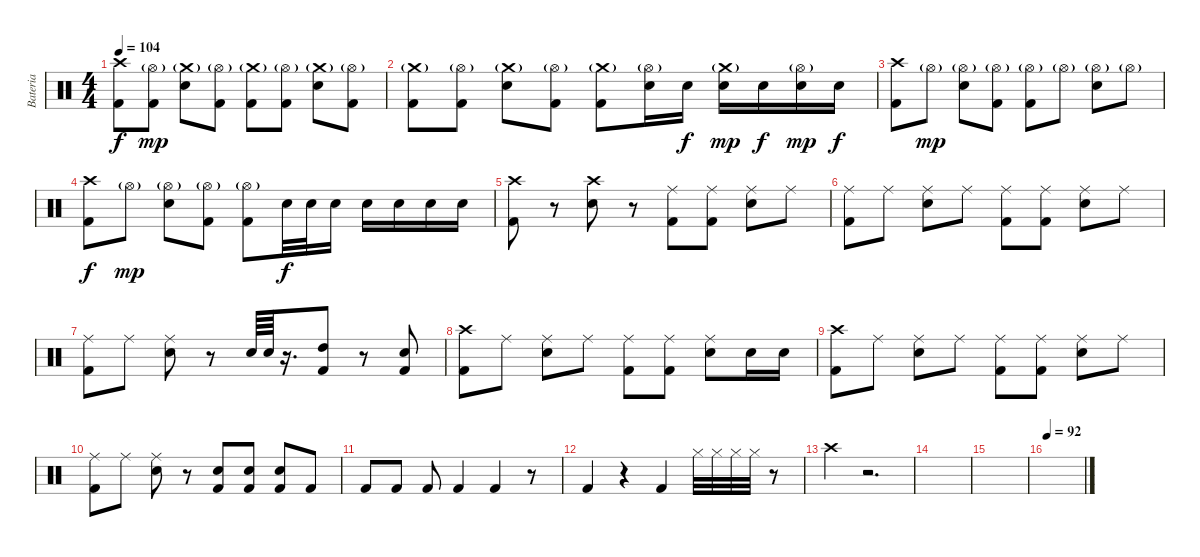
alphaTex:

\track ("Bateria" "Bateria") {instrument percussion}
\staff {score}
\articulation defaults
\ts (4 4)
\tempo 104
\clef neutral
\ks c
("Crash high (hit)" "Kick (hit) 2").8{dy f} ("Hi-Hat (open)"{g} "Kick (hit) 2").8{dy mp} ("Crash medium (hit)"{g} "Snare (hit) 2").8 ("Hi-Hat (open)"{g} "Kick (hit) 2").8 ("Crash medium (hit)"{g} "Kick (hit) 2").8 ("Hi-Hat (open)"{g} "Kick (hit) 2").8 ("Crash medium (hit)"{g} "Snare (hit) 2").8 ("Hi-Hat (open)"{g} "Kick (hit) 2").8 |
("Crash medium (hit)"{g} "Kick (hit) 2").8 ("Hi-Hat (open)"{g} "Kick (hit) 2").8 ("Crash medium (hit)"{g} "Snare (hit) 2").8 ("Hi-Hat (open)"{g} "Kick (hit) 2").8 ("Crash medium (hit)"{g} "Kick (hit) 2").8 ("Hi-Hat (open)"{g} "Snare (hit) 2").16 "Snare (hit) 2".16{dy f} ("Crash medium (hit)"{g} "Snare (hit) 2").16{dy mp} "Snare (hit) 2".16{dy f} ("Hi-Hat (open)"{g} "Snare (hit) 2").16{dy mp} "Snare (hit) 2".16{dy f} |
("Crash high (hit)" "Kick (hit) 2").8 "Hi-Hat (open)"{g}.8{dy mp} ("Hi-Hat (open)"{g} "Snare (hit) 2").8 ("Hi-Hat (open)"{g} "Kick (hit) 2").8 ("Hi-Hat (open)"{g} "Kick (hit) 2").8 "Hi-Hat (open)"{g}.8 ("Hi-Hat (open)"{g} "Snare (hit) 2").8 "Hi-Hat (open)"{g}.8 |
("Crash high (hit)" "Kick (hit) 2").8{dy f} "Hi-Hat (open)"{g}.8{dy mp} ("Hi-Hat (open)"{g} "Snare (hit) 2").8 ("Hi-Hat (open)"{g} "Kick (hit) 2").8 ("Hi-Hat (open)"{g} "Kick (hit) 2").8 "Snare (hit) 2".32{dy f} "Snare (hit) 2".32 "Snare (hit) 2".16 "Snare (hit) 2".16 "Snare (hit) 2".16 "Snare (hit) 2".16 "Snare (hit) 2".16 |
("Crash high (hit)" "Kick (hit) 2").8 r.8 ("Crash high (hit)" "Snare (hit) 2").8 r.8 ("Ride (middle)" "Kick (hit) 2").8 ("Ride (middle)" "Kick (hit) 2").8 ("Ride (middle)" "Snare (hit) 2").8 "Ride (middle)".8 |
("Ride (middle)" "Kick (hit) 2").8 "Ride (middle)".8 ("Ride (middle)" "Snare (hit) 2").8 "Ride (middle)".8 ("Ride (middle)" "Kick (hit) 2").8 ("Ride (middle)" "Kick (hit) 2").8 ("Ride (middle)" "Snare (hit) 2").8 "Ride (middle)".8 |
("Ride (middle)" "Kick (hit) 2").8 "Ride (middle)".8 ("Ride (middle)" "Snare (hit) 2").8 r.8 "Snare (hit) 2".64 "Snare (hit) 2".64 r.16{d} ("Kick (hit) 2" "High Tom (hit)").8 r.8 ("Snare (hit) 2" "Kick (hit) 2").8 |
("Crash high (hit)" "Kick (hit) 2").8 "Ride (middle)".8 ("Ride (middle)" "Snare (hit) 2").8 "Ride (middle)".8 ("Ride (middle)" "Kick (hit) 2").8 ("Ride (middle)" "Kick (hit) 2").8 ("Ride (middle)" "Snare (hit) 2").8 "Snare (hit) 2".16 "Snare (hit) 2".16 |
("Crash high (hit)" "Kick (hit) 2").8 "Ride (middle)".8 ("Ride (middle)" "Snare (hit) 2").8 "Ride (middle)".8 ("Ride (middle)" "Kick (hit) 2").8 ("Ride (middle)" "Kick (hit) 2").8 ("Ride (middle)" "Snare (hit) 2").8 "Ride (middle)".8 |
("Ride (middle)" "Kick (hit) 2").8 "Ride (middle)".8 ("Ride (middle)" "Snare (hit) 2").8 r.8 ("Kick (hit) 2" "Snare (hit) 2").8 ("Kick (hit) 2" "Snare (hit) 2").8 ("Kick (hit) 2" "Snare (hit) 2").8 "Kick (hit) 2".8 |
"Kick (hit) 2".8 "Kick (hit) 2".8 "Kick (hit) 2".8 "Kick (hit) 2".4 "Kick (hit) 2".4 r.8 |
"Kick (hit) 2".4 r.4 "Kick (hit) 2".4 "Hi-Hat (closed)".32 "Hi-Hat (closed)".32 "Hi-Hat (closed)".32 "Hi-Hat (closed)".32 r.8 |
"Crash high (hit)".4 r.2{d} |
|
|
\tempo 92
